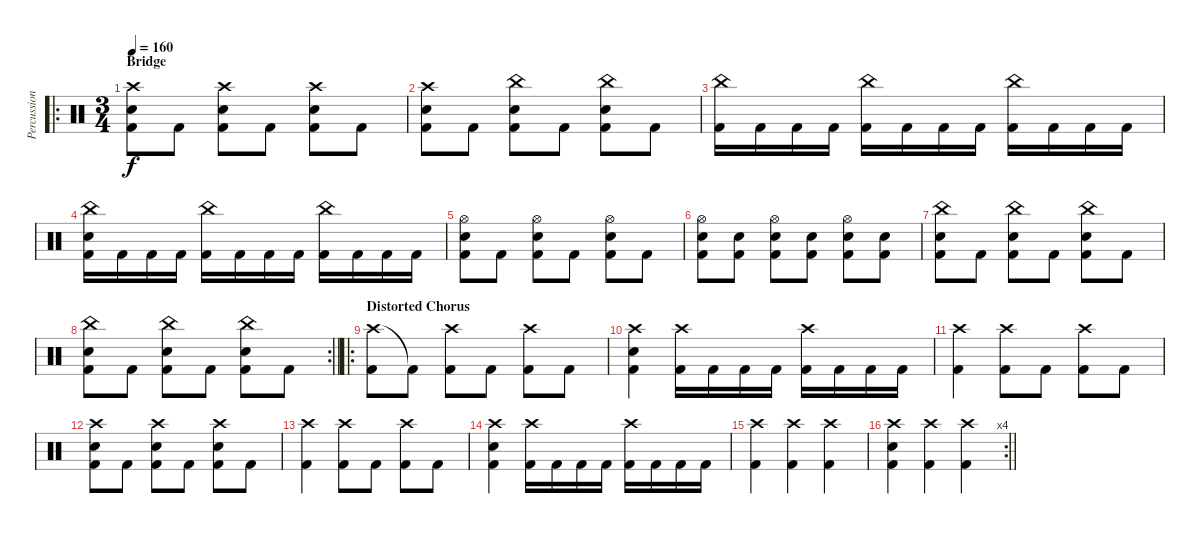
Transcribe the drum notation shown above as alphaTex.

\track ("Percussion" "Percussion") {instrument percussion}
\staff {score}
\articulation defaults
\ro
\ts (3 4)
\section ("" "Bridge")
\tempo 160
\clef neutral
\ks c
("Crash high (hit)" "Electric Snare (hit)" "Kick (hit) 2").8{dy f} "Kick (hit) 2".8 ("Crash high (hit)" "Electric Snare (hit)" "Kick (hit) 2").8 "Kick (hit) 2".8 ("Crash high (hit)" "Electric Snare (hit)" "Kick (hit) 2").8 "Kick (hit) 2".8 |
("Crash high (hit)" "Electric Snare (hit)" "Kick (hit) 2").8 "Kick (hit) 2".8 ("China (hit)" "Electric Snare (hit)" "Kick (hit) 2").8 "Kick (hit) 2".8 ("China (hit)" "Electric Snare (hit)" "Kick (hit) 2").8 "Kick (hit) 2".8 |
("China (hit)" "Kick (hit) 2").16 "Kick (hit) 2".16 "Kick (hit) 2".16 "Kick (hit) 2".16 ("China (hit)" "Kick (hit) 2").16 "Kick (hit) 2".16 "Kick (hit) 2".16 "Kick (hit) 2".16 ("China (hit)" "Kick (hit) 2").16 "Kick (hit) 2".16 "Kick (hit) 2".16 "Kick (hit) 2".16 |
("China (hit)" "Electric Snare (hit)" "Kick (hit) 2").16 "Kick (hit) 2".16 "Kick (hit) 2".16 "Kick (hit) 2".16 ("China (hit)" "Kick (hit) 2").16 "Kick (hit) 2".16 "Kick (hit) 2".16 "Kick (hit) 2".16 ("China (hit)" "Kick (hit) 2").16 "Kick (hit) 2".16 "Kick (hit) 2".16 "Kick (hit) 2".16 |
("Hi-Hat (open)" "Electric Snare (hit)" "Kick (hit) 2").8 "Kick (hit) 2".8 ("Hi-Hat (open)" "Electric Snare (hit)" "Kick (hit) 2").8 "Kick (hit) 2".8 ("Hi-Hat (open)" "Electric Snare (hit)" "Kick (hit) 2").8 "Kick (hit) 2".8 |
("Hi-Hat (open)" "Electric Snare (hit)" "Kick (hit) 2").8 ("Electric Snare (hit)" "Kick (hit) 2").8 ("Hi-Hat (open)" "Electric Snare (hit)" "Kick (hit) 2").8 ("Electric Snare (hit)" "Kick (hit) 2").8 ("Hi-Hat (open)" "Electric Snare (hit)" "Kick (hit) 2").8 ("Electric Snare (hit)" "Kick (hit) 2").8 |
("China (hit)" "Electric Snare (hit)" "Kick (hit) 2").8 "Kick (hit) 2".8 ("China (hit)" "Electric Snare (hit)" "Kick (hit) 2").8 "Kick (hit) 2".8 ("China (hit)" "Electric Snare (hit)" "Kick (hit) 2").8 "Kick (hit) 2".8 |
\rc 2
\barLineRight lightlight
("China (hit)" "Electric Snare (hit)" "Kick (hit) 2").8 "Kick (hit) 2".8 ("China (hit)" "Electric Snare (hit)" "Kick (hit) 2").8 "Kick (hit) 2".8 ("China (hit)" "Electric Snare (hit)" "Kick (hit) 2").8 "Kick (hit) 2".8 |
\ro
\section ("" "Distorted Chorus")
("Crash high (hit)" "Kick (hit) 2").8 "Kick (hit) 2"{t}.8 ("Crash high (hit)" "Kick (hit) 2").8 "Kick (hit) 2".8 ("Crash high (hit)" "Kick (hit) 2").8 "Kick (hit) 2".8 |
("Crash high (hit)" "Electric Snare (hit)" "Kick (hit) 2").4 ("Crash high (hit)" "Kick (hit) 2").16 "Kick (hit) 2".16 "Kick (hit) 2".16 "Kick (hit) 2".16 ("Crash high (hit)" "Kick (hit) 2").16 "Kick (hit) 2".16 "Kick (hit) 2".16 "Kick (hit) 2".16 |
("Crash high (hit)" "Kick (hit) 2").4 ("Crash high (hit)" "Kick (hit) 2").8 "Kick (hit) 2".8 ("Crash high (hit)" "Kick (hit) 2").8 "Kick (hit) 2".8 |
("Crash high (hit)" "Electric Snare (hit)" "Kick (hit) 2").8 "Kick (hit) 2".8 ("Crash high (hit)" "Electric Snare (hit)" "Kick (hit) 2").8 "Kick (hit) 2".8 ("Crash high (hit)" "Electric Snare (hit)" "Kick (hit) 2").8 "Kick (hit) 2".8 |
("Crash high (hit)" "Kick (hit) 2").4 ("Crash high (hit)" "Kick (hit) 2").8 "Kick (hit) 2".8 ("Crash high (hit)" "Kick (hit) 2").8 "Kick (hit) 2".8 |
("Crash high (hit)" "Electric Snare (hit)" "Kick (hit) 2").4 ("Crash high (hit)" "Kick (hit) 2").16 "Kick (hit) 2".16 "Kick (hit) 2".16 "Kick (hit) 2".16 ("Crash high (hit)" "Kick (hit) 2").16 "Kick (hit) 2".16 "Kick (hit) 2".16 "Kick (hit) 2".16 |
("Crash high (hit)" "Kick (hit) 2").4 ("Crash high (hit)" "Kick (hit) 2").4 ("Crash high (hit)" "Kick (hit) 2").4 |
\rc 4
\barLineRight lightlight
("Crash high (hit)" "Electric Snare (hit)" "Kick (hit) 2").4 ("Crash high (hit)" "Kick (hit) 2").4 ("Crash high (hit)" "Kick (hit) 2").4
